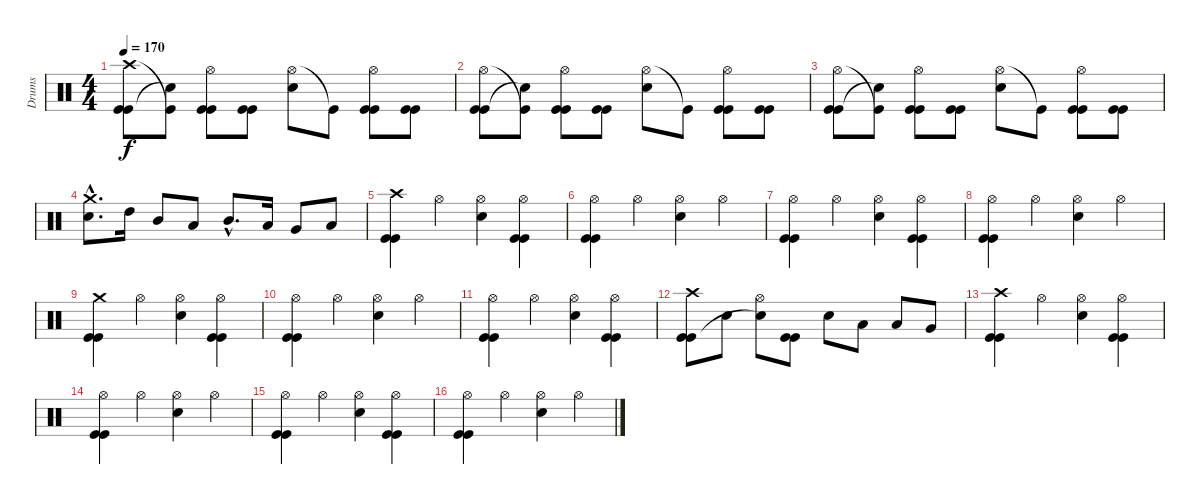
\track ("Drums" "Drums") {instrument percussion}
\staff {score}
\articulation defaults
\ts (4 4)
\tempo 170
\clef neutral
\ks c
("Crash high (hit)" "Kick (hit)" "Kick (hit)").8{dy f} ("Kick (hit)"{t} "Snare (hit)"{t}).8 ("Hi-Hat (open)" "Kick (hit)" "Kick (hit)").8 ("Kick (hit)" "Kick (hit)").8 ("Hi-Hat (open)" "Snare (hit) 2").8 "Kick (hit)"{t}.8 ("Hi-Hat (open)" "Kick (hit)" "Kick (hit)").8 ("Kick (hit)" "Kick (hit)").8 |
("Hi-Hat (open)" "Kick (hit)" "Kick (hit)").8 ("Kick (hit)"{t} "Snare (hit)"{t}).8 ("Hi-Hat (open)" "Kick (hit)" "Kick (hit)").8 ("Kick (hit)" "Kick (hit)").8 ("Hi-Hat (open)" "Snare (hit) 2").8 "Kick (hit)"{t}.8 ("Hi-Hat (open)" "Kick (hit)" "Kick (hit)").8 ("Kick (hit)" "Kick (hit)").8 |
("Hi-Hat (open)" "Kick (hit)" "Kick (hit)").8 ("Kick (hit)"{t} "Snare (hit)"{t}).8 ("Hi-Hat (open)" "Kick (hit)" "Kick (hit)").8 ("Kick (hit)" "Kick (hit)").8 ("Hi-Hat (open)" "Snare (hit) 2").8 "Kick (hit)"{t}.8 ("Hi-Hat (open)" "Kick (hit)" "Kick (hit)").8 ("Kick (hit)" "Kick (hit)").8 |
("Crash medium (hit)"{hac} "Snare (hit) 2"{hac}).8{d} "High Tom (hit)".16 "Mid Tom (hit)".8 "Low Tom (hit)".8 "Mid Tom (hit)"{hac}.8{d} "Low Tom (hit)".16 "Very Low Tom (hit)".8 "Low Floor Tom (hit)".8 |
("Crash high (hit)" "Kick (hit)" "Kick (hit)").4 "Hi-Hat (open)".4 ("Hi-Hat (open)" "Snare (hit) 2").4 ("Hi-Hat (open)" "Kick (hit)" "Kick (hit)").4 |
("Hi-Hat (open)" "Kick (hit)" "Kick (hit)").4 "Hi-Hat (open)".4 ("Hi-Hat (open)" "Snare (hit) 2").4 "Hi-Hat (open)".4 |
("Hi-Hat (open)" "Kick (hit)" "Kick (hit)").4 "Hi-Hat (open)".4 ("Hi-Hat (open)" "Snare (hit) 2").4 ("Hi-Hat (open)" "Kick (hit)" "Kick (hit)").4 |
("Hi-Hat (open)" "Kick (hit)" "Kick (hit)").4 "Hi-Hat (open)".4 ("Hi-Hat (open)" "Snare (hit) 2").4 "Hi-Hat (open)".4 |
("Crash medium (hit)" "Kick (hit)" "Kick (hit)").4 "Hi-Hat (open)".4 ("Hi-Hat (open)" "Snare (hit) 2").4 ("Hi-Hat (open)" "Kick (hit)" "Kick (hit)").4 |
("Hi-Hat (open)" "Kick (hit)" "Kick (hit)").4 "Hi-Hat (open)".4 ("Hi-Hat (open)" "Snare (hit) 2").4 "Hi-Hat (open)".4 |
("Hi-Hat (open)" "Kick (hit)" "Kick (hit)").4 "Hi-Hat (open)".4 ("Hi-Hat (open)" "Snare (hit) 2").4 ("Hi-Hat (open)" "Kick (hit)" "Kick (hit)").4 |
("Crash high (hit)" "Kick (hit)" "Kick (hit)").8 "Snare (hit) 2".8 ("Hi-Hat (open)" "Snare (hit) 2"{t}).8 ("Kick (hit)" "Kick (hit)").8 "Snare (hit) 2".8 "Low Tom (hit)".8 "Low Tom (hit)".8 "Very Low Tom (hit)".8 |
("Crash high (hit)" "Kick (hit)" "Kick (hit)").4 "Hi-Hat (open)".4 ("Hi-Hat (open)" "Snare (hit) 2").4 ("Hi-Hat (open)" "Kick (hit)" "Kick (hit)").4 |
("Hi-Hat (open)" "Kick (hit)" "Kick (hit)").4 "Hi-Hat (open)".4 ("Hi-Hat (open)" "Snare (hit) 2").4 "Hi-Hat (open)".4 |
("Hi-Hat (open)" "Kick (hit)" "Kick (hit)").4 "Hi-Hat (open)".4 ("Hi-Hat (open)" "Snare (hit) 2").4 ("Hi-Hat (open)" "Kick (hit)" "Kick (hit)").4 |
("Hi-Hat (open)" "Kick (hit)" "Kick (hit)").4 "Hi-Hat (open)".4 ("Hi-Hat (open)" "Snare (hit) 2").4 "Hi-Hat (open)".4
